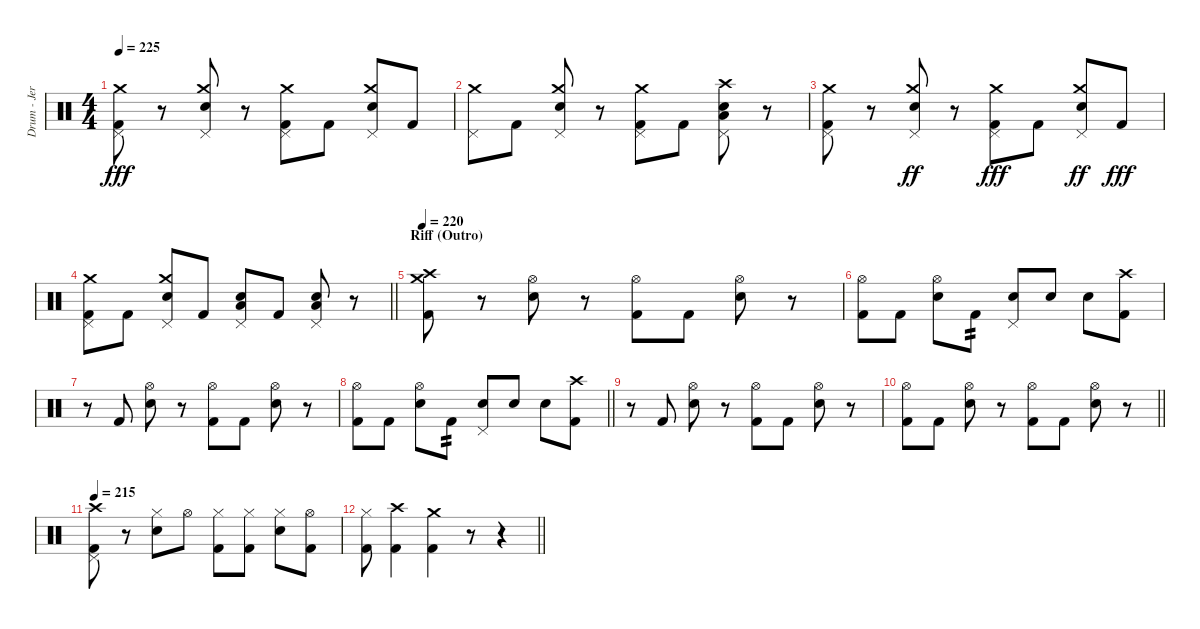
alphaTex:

\track ("Drum - Jerinx" "Drum - Jer") {instrument percussion}
\staff {score}
\articulation defaults
\ts (4 4)
\tempo 225
\clef neutral
\ks c
("Pedal Hi-Hat (hit)" "Kick (hit) 2" "Crash medium (hit)").8{dy fff} r.8 ("Pedal Hi-Hat (hit)" "Snare (hit) 2" "Crash medium (hit)").8 r.8 ("Pedal Hi-Hat (hit)" "Kick (hit) 2" "Crash medium (hit)").8 "Kick (hit) 2".8 ("Pedal Hi-Hat (hit)" "Snare (hit) 2" "Crash medium (hit)").8 "Kick (hit) 2".8 |
("Pedal Hi-Hat (hit)" "Crash medium (hit)").8 "Kick (hit) 2".8 ("Pedal Hi-Hat (hit)" "Snare (hit) 2" "Crash medium (hit)").8 r.8 ("Pedal Hi-Hat (hit)" "Kick (hit) 2" "Crash medium (hit)").8 "Kick (hit) 2".8 ("Pedal Hi-Hat (hit)" "Snare (hit) 2" "Low Floor Tom (hit)" "Crash high (hit)").8 r.8 |
("Pedal Hi-Hat (hit)" "Kick (hit) 2" "Crash medium (hit)").8 r.8 ("Pedal Hi-Hat (hit)" "Snare (hit) 2" "Crash medium (hit)").8{dy ff} r.8 ("Pedal Hi-Hat (hit)" "Kick (hit) 2" "Crash medium (hit)").8{dy fff} "Kick (hit) 2".8 ("Pedal Hi-Hat (hit)" "Snare (hit) 2" "Crash medium (hit)").8{dy ff} "Kick (hit) 2".8{dy fff} |
\barLineRight lightlight
("Pedal Hi-Hat (hit)" "Kick (hit) 2" "Crash medium (hit)").8 "Kick (hit) 2".8 ("Pedal Hi-Hat (hit)" "Snare (hit) 2" "Crash medium (hit)").8 "Kick (hit) 2".8 ("Pedal Hi-Hat (hit)" "Snare (hit) 2" "Low Floor Tom (hit)").8 "Kick (hit) 2".8 ("Pedal Hi-Hat (hit)" "Snare (hit) 2" "Low Floor Tom (hit)").8 r.8 |
\section ("" "Riff (Outro)")
\tempo 220
("Kick (hit) 2" "Crash medium (hit)" "Crash high (hit)").8 r.8 ("Hi-Hat (open)" "Snare (hit) 2").8 r.8 ("Hi-Hat (open)" "Kick (hit) 2").8 "Kick (hit) 2".8 ("Hi-Hat (open)" "Snare (hit) 2").8 r.8 |
("Hi-Hat (open)" "Kick (hit) 2").8 "Kick (hit) 2".8 ("Hi-Hat (open)" "Snare (hit) 2").8 "Kick (hit) 2".8{tp 2} ("Pedal Hi-Hat (hit)" "Snare (hit) 2").8 "Snare (hit) 2".8 "Snare (hit) 2".8 ("Kick (hit) 2" "Crash high (hit)").8 |
r.8 "Kick (hit) 2".8 ("Hi-Hat (open)" "Snare (hit) 2").8 r.8 ("Hi-Hat (open)" "Kick (hit) 2").8 "Kick (hit) 2".8 ("Hi-Hat (open)" "Snare (hit) 2").8 r.8 |
\barLineRight lightlight
("Hi-Hat (open)" "Kick (hit) 2").8 "Kick (hit) 2".8 ("Hi-Hat (open)" "Snare (hit) 2").8 "Kick (hit) 2".8{tp 2} ("Pedal Hi-Hat (hit)" "Snare (hit) 2").8 "Snare (hit) 2".8 "Snare (hit) 2".8 ("Kick (hit) 2" "Crash high (hit)").8 |
r.8 "Kick (hit) 2".8 ("Hi-Hat (open)" "Snare (hit) 2").8 r.8 ("Hi-Hat (open)" "Kick (hit) 2").8 "Kick (hit) 2".8 ("Hi-Hat (open)" "Snare (hit) 2").8 r.8 |
\barLineRight lightlight
("Hi-Hat (open)" "Kick (hit) 2").8 "Kick (hit) 2".8 ("Hi-Hat (open)" "Snare (hit) 2").8 r.8 ("Hi-Hat (open)" "Kick (hit) 2").8 "Kick (hit) 2".8 ("Hi-Hat (open)" "Snare (hit) 2").8 r.8 |
\tempo 215
("Pedal Hi-Hat (hit)" "Kick (hit) 2" "Crash high (hit)").8 r.8 ("Hi-Hat (closed)" "Snare (hit) 2").8 "Hi-Hat (open)".8 ("Hi-Hat (closed)" "Kick (hit) 2").8 ("Hi-Hat (closed)" "Kick (hit) 2").8 ("Hi-Hat (closed)" "Snare (hit) 2").8 ("Hi-Hat (open)" "Kick (hit) 2").8 |
\barLineRight lightlight
("Hi-Hat (closed)" "Kick (hit) 2").8 ("Kick (hit) 2" "Crash high (hit)").4 ("Kick (hit) 2" "Crash medium (hit)").4 r.8 r.4
